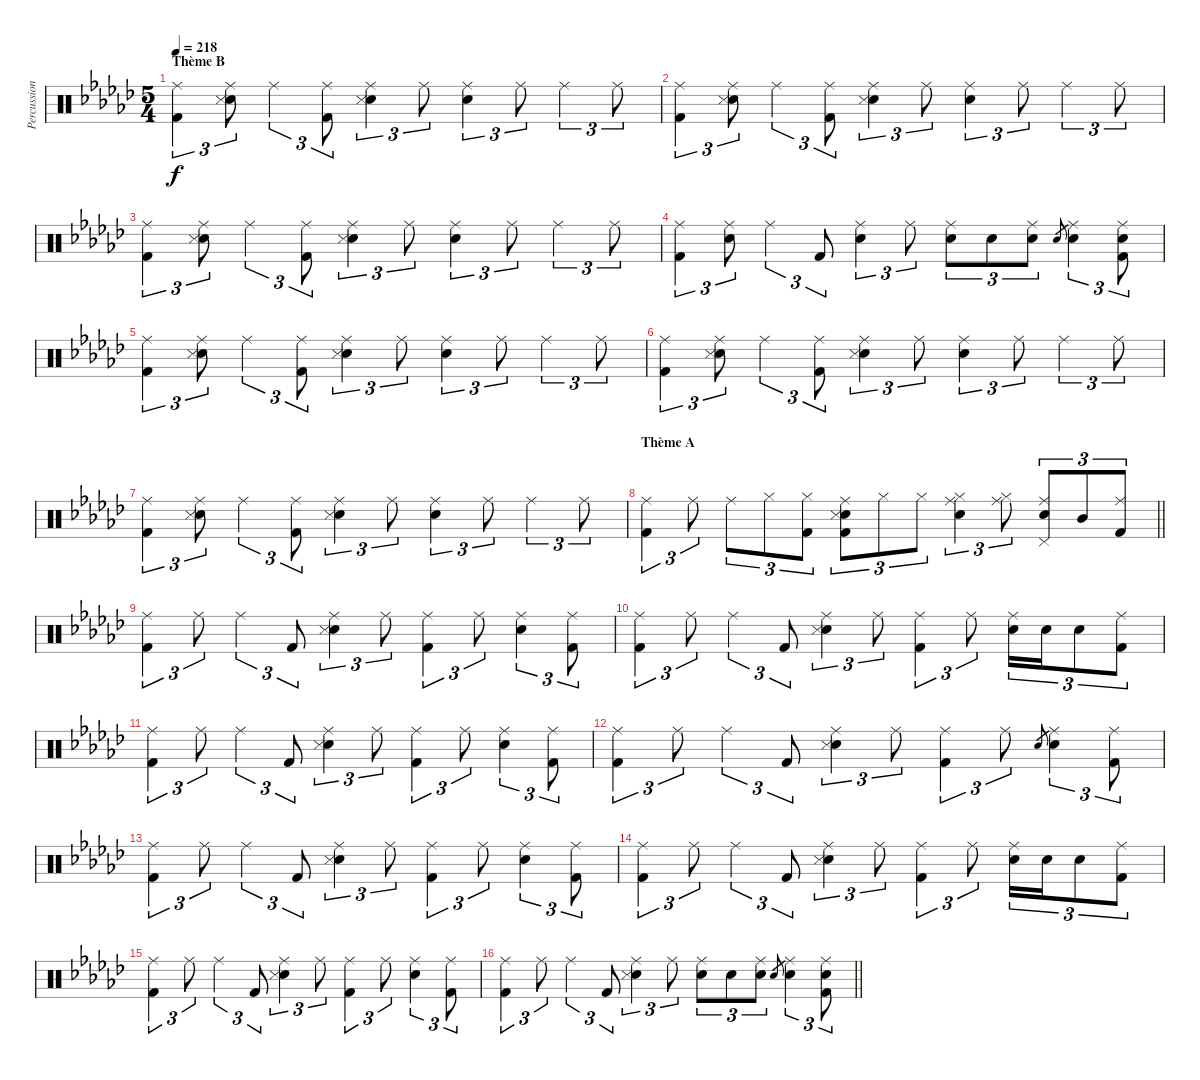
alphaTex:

\track ("Percussions" "Percussion") {instrument percussion}
\staff {score}
\articulation defaults
\ts (5 4)
\section ("" "Thème B")
\tempo 218
\clef neutral
\ks ebminor
("Ride (middle)" "Kick (hit) 2").4{tu (3 2) dy f volume 15 balance 8} ("Ride (middle)" "Snare (hit) 2" "Snare (side stick) 3").8{tu (3 2)} "Ride (middle)".4{tu (3 2)} ("Ride (middle)" "Kick (hit) 2").8{tu (3 2)} ("Ride (middle)" "Snare (hit) 2" "Snare (side stick) 3").4{tu (3 2)} "Ride (middle)".8{tu (3 2)} ("Ride (middle)" "Snare (hit) 2").4{tu (3 2)} "Ride (middle)".8{tu (3 2)} "Ride (middle)".4{tu (3 2)} "Ride (middle)".8{tu (3 2)} |
("Ride (middle)" "Kick (hit) 2").4{tu (3 2)} ("Ride (middle)" "Snare (hit) 2" "Snare (side stick) 3").8{tu (3 2)} "Ride (middle)".4{tu (3 2)} ("Ride (middle)" "Kick (hit) 2").8{tu (3 2)} ("Ride (middle)" "Snare (hit) 2" "Snare (side stick) 3").4{tu (3 2)} "Ride (middle)".8{tu (3 2)} ("Ride (middle)" "Snare (hit) 2").4{tu (3 2)} "Ride (middle)".8{tu (3 2)} "Ride (middle)".4{tu (3 2)} "Ride (middle)".8{tu (3 2)} |
("Ride (middle)" "Kick (hit) 2").4{tu (3 2)} ("Ride (middle)" "Snare (hit) 2" "Snare (side stick) 3").8{tu (3 2)} "Ride (middle)".4{tu (3 2)} ("Ride (middle)" "Kick (hit) 2").8{tu (3 2)} ("Ride (middle)" "Snare (hit) 2" "Snare (side stick) 3").4{tu (3 2)} "Ride (middle)".8{tu (3 2)} ("Ride (middle)" "Snare (hit) 2").4{tu (3 2)} "Ride (middle)".8{tu (3 2)} "Ride (middle)".4{tu (3 2)} "Ride (middle)".8{tu (3 2)} |
("Ride (middle)" "Kick (hit) 2").4{tu (3 2)} ("Ride (middle)" "Snare (hit) 2").8{tu (3 2)} "Ride (middle)".4{tu (3 2)} "Kick (hit) 2".8{tu (3 2)} ("Ride (middle)" "Snare (hit) 2").4{tu (3 2)} "Ride (middle)".8{tu (3 2)} ("Ride (middle)" "Snare (hit) 2").8{tu (3 2)} "Snare (hit) 2".8{tu (3 2)} ("Ride (middle)" "Snare (hit) 2").8{tu (3 2)} "Snare (hit) 2".8{gr} ("Ride (middle)" "Snare (hit) 2").4{tu (3 2)} ("Ride (middle)" "Snare (hit) 2" "Kick (hit) 2").8{tu (3 2)} |
("Ride (middle)" "Kick (hit) 2").4{tu (3 2)} ("Ride (middle)" "Snare (hit) 2" "Snare (side stick) 3").8{tu (3 2)} "Ride (middle)".4{tu (3 2)} ("Ride (middle)" "Kick (hit) 2").8{tu (3 2)} ("Ride (middle)" "Snare (hit) 2" "Snare (side stick) 3").4{tu (3 2)} "Ride (middle)".8{tu (3 2)} ("Ride (middle)" "Snare (hit) 2").4{tu (3 2)} "Ride (middle)".8{tu (3 2)} "Ride (middle)".4{tu (3 2)} "Ride (middle)".8{tu (3 2)} |
("Ride (middle)" "Kick (hit) 2").4{tu (3 2)} ("Ride (middle)" "Snare (hit) 2" "Snare (side stick) 3").8{tu (3 2)} "Ride (middle)".4{tu (3 2)} ("Ride (middle)" "Kick (hit) 2").8{tu (3 2)} ("Ride (middle)" "Snare (hit) 2" "Snare (side stick) 3").4{tu (3 2)} "Ride (middle)".8{tu (3 2)} ("Ride (middle)" "Snare (hit) 2").4{tu (3 2)} "Ride (middle)".8{tu (3 2)} "Ride (middle)".4{tu (3 2)} "Ride (middle)".8{tu (3 2)} |
("Ride (middle)" "Kick (hit) 2").4{tu (3 2)} ("Ride (middle)" "Snare (hit) 2" "Snare (side stick) 3").8{tu (3 2)} "Ride (middle)".4{tu (3 2)} ("Ride (middle)" "Kick (hit) 2").8{tu (3 2)} ("Ride (middle)" "Snare (hit) 2" "Snare (side stick) 3").4{tu (3 2)} "Ride (middle)".8{tu (3 2)} ("Ride (middle)" "Snare (hit) 2").4{tu (3 2)} "Ride (middle)".8{tu (3 2)} "Ride (middle)".4{tu (3 2)} "Ride (middle)".8{tu (3 2)} |
\section ("" "Thème A")
\barLineRight lightlight
("Ride (middle)" "Kick (hit) 2").4{tu (3 2)} "Ride (middle)".8{tu (3 2)} "Ride (middle)".8{tu (3 2)} "Hi-Hat (closed)".8{tu (3 2)} ("Hi-Hat (closed)" "Kick (hit) 2").8{tu (3 2)} ("Ride (middle)" "Snare (hit) 2" "Snare (side stick) 3" "Kick (hit) 2").8{tu (3 2)} "Hi-Hat (closed)".8{tu (3 2)} "Hi-Hat (closed)".8{tu (3 2)} ("Ride (middle)" "Hi-Hat (closed)" "Snare (hit) 2").4{tu (3 2)} ("Ride (middle)" "Hi-Hat (closed)").8{tu (3 2)} ("Ride (middle)" "Pedal Hi-Hat (hit)" "Snare (hit) 2").8{tu (3 2)} "Mid Tom (hit)".8{tu (3 2)} ("Ride (middle)" "Kick (hit) 2").8{tu (3 2)} |
("Ride (middle)" "Kick (hit) 2").4{tu (3 2)} "Ride (middle)".8{tu (3 2)} "Ride (middle)".4{tu (3 2)} "Kick (hit) 2".8{tu (3 2)} ("Ride (middle)" "Snare (hit) 2" "Snare (side stick) 3").4{tu (3 2)} "Ride (middle)".8{tu (3 2)} ("Ride (middle)" "Kick (hit) 2").4{tu (3 2)} "Ride (middle)".8{tu (3 2)} ("Ride (middle)" "Snare (hit) 2").4{tu (3 2)} ("Ride (middle)" "Kick (hit) 2").8{tu (3 2)} |
("Ride (middle)" "Kick (hit) 2").4{tu (3 2)} "Ride (middle)".8{tu (3 2)} "Ride (middle)".4{tu (3 2)} "Kick (hit) 2".8{tu (3 2)} ("Ride (middle)" "Snare (hit) 2" "Snare (side stick) 3").4{tu (3 2)} "Ride (middle)".8{tu (3 2)} ("Ride (middle)" "Kick (hit) 2").4{tu (3 2)} "Ride (middle)".8{tu (3 2)} ("Ride (middle)" "Snare (hit) 2").16{tu (3 2)} "Snare (hit) 2".16{tu (3 2)} "Snare (hit) 2".8{tu (3 2)} ("Ride (middle)" "Kick (hit) 2").8{tu (3 2)} |
("Ride (middle)" "Kick (hit) 2").4{tu (3 2)} "Ride (middle)".8{tu (3 2)} "Ride (middle)".4{tu (3 2)} "Kick (hit) 2".8{tu (3 2)} ("Ride (middle)" "Snare (hit) 2" "Snare (side stick) 3").4{tu (3 2)} "Ride (middle)".8{tu (3 2)} ("Ride (middle)" "Kick (hit) 2").4{tu (3 2)} "Ride (middle)".8{tu (3 2)} ("Ride (middle)" "Snare (hit) 2").4{tu (3 2)} ("Ride (middle)" "Kick (hit) 2").8{tu (3 2)} |
("Ride (middle)" "Kick (hit) 2").4{tu (3 2)} "Ride (middle)".8{tu (3 2)} "Ride (middle)".4{tu (3 2)} "Kick (hit) 2".8{tu (3 2)} ("Ride (middle)" "Snare (hit) 2" "Snare (side stick) 3").4{tu (3 2)} "Ride (middle)".8{tu (3 2)} ("Ride (middle)" "Kick (hit) 2").4{tu (3 2)} "Ride (middle)".8{tu (3 2)} "Snare (hit) 2".8{gr} ("Ride (middle)" "Snare (hit) 2").4{tu (3 2)} ("Ride (middle)" "Kick (hit) 2").8{tu (3 2)} |
("Ride (middle)" "Kick (hit) 2").4{tu (3 2)} "Ride (middle)".8{tu (3 2)} "Ride (middle)".4{tu (3 2)} "Kick (hit) 2".8{tu (3 2)} ("Ride (middle)" "Snare (hit) 2" "Snare (side stick) 3").4{tu (3 2)} "Ride (middle)".8{tu (3 2)} ("Ride (middle)" "Kick (hit) 2").4{tu (3 2)} "Ride (middle)".8{tu (3 2)} ("Ride (middle)" "Snare (hit) 2").4{tu (3 2)} ("Ride (middle)" "Kick (hit) 2").8{tu (3 2)} |
("Ride (middle)" "Kick (hit) 2").4{tu (3 2)} "Ride (middle)".8{tu (3 2)} "Ride (middle)".4{tu (3 2)} "Kick (hit) 2".8{tu (3 2)} ("Ride (middle)" "Snare (hit) 2" "Snare (side stick) 3").4{tu (3 2)} "Ride (middle)".8{tu (3 2)} ("Ride (middle)" "Kick (hit) 2").4{tu (3 2)} "Ride (middle)".8{tu (3 2)} ("Ride (middle)" "Snare (hit) 2").16{tu (3 2)} "Snare (hit) 2".16{tu (3 2)} "Snare (hit) 2".8{tu (3 2)} ("Ride (middle)" "Kick (hit) 2").8{tu (3 2)} |
("Ride (middle)" "Kick (hit) 2").4{tu (3 2)} "Ride (middle)".8{tu (3 2)} "Ride (middle)".4{tu (3 2)} "Kick (hit) 2".8{tu (3 2)} ("Ride (middle)" "Snare (hit) 2" "Snare (side stick) 3").4{tu (3 2)} "Ride (middle)".8{tu (3 2)} ("Ride (middle)" "Kick (hit) 2").4{tu (3 2)} "Ride (middle)".8{tu (3 2)} ("Ride (middle)" "Snare (hit) 2").4{tu (3 2)} ("Ride (middle)" "Kick (hit) 2").8{tu (3 2)} |
\barLineRight lightlight
("Ride (middle)" "Kick (hit) 2").4{tu (3 2)} "Ride (middle)".8{tu (3 2)} "Ride (middle)".4{tu (3 2)} "Kick (hit) 2".8{tu (3 2)} ("Ride (middle)" "Snare (hit) 2" "Snare (side stick) 3").4{tu (3 2)} "Ride (middle)".8{tu (3 2)} ("Ride (middle)" "Snare (hit) 2").8{tu (3 2)} "Snare (hit) 2".8{tu (3 2)} ("Ride (middle)" "Snare (hit) 2").8{tu (3 2)} "Snare (hit) 2".8{gr} ("Ride (middle)" "Snare (hit) 2").4{tu (3 2)} ("Ride (middle)" "Snare (hit) 2" "Kick (hit) 2").8{tu (3 2)}
